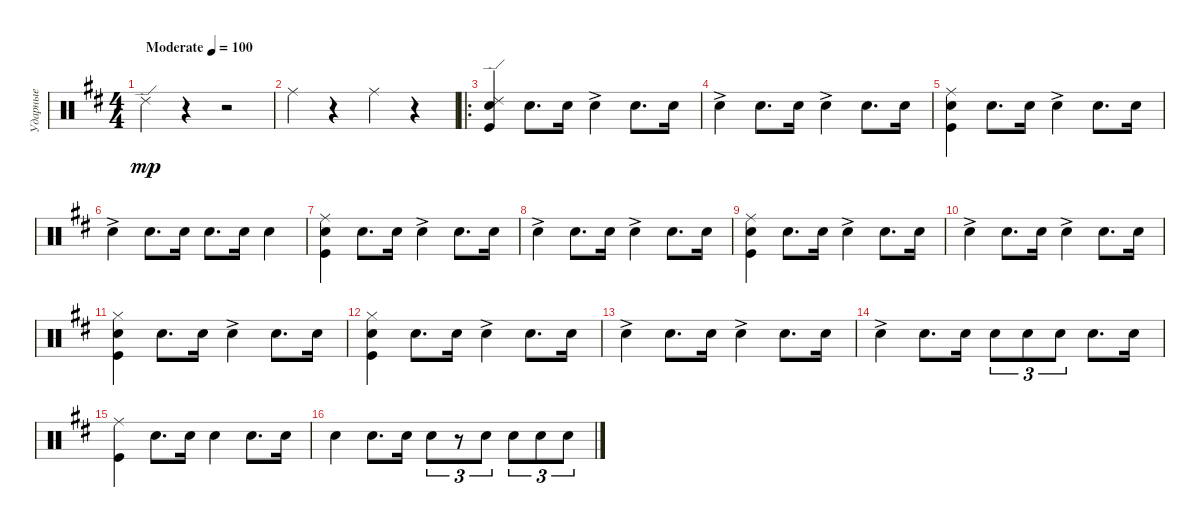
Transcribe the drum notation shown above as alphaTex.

\track ("Ударные" "Ударные") {instrument percussion}
\staff {score}
\articulation defaults
\ts (4 4)
\tempo (100 "Moderate")
\clef neutral
\ks d "Ride (edge) 2".4{dy mp}
r.4 r.2 |
"Ride (middle)".4 r.4 "Ride (middle)".4{beam Down} r.4 |
\ro
("Snare (hit) 2" "Kick (hit)" "Ride (edge) 2").4 "Snare (hit) 2".8{d} "Snare (hit) 2".16 "Snare (hit) 2"{ac}.4 "Snare (hit) 2".8{d} "Snare (hit) 2".16 |
"Snare (hit) 2"{ac}.4 "Snare (hit) 2".8{d} "Snare (hit) 2".16 "Snare (hit) 2"{ac}.4 "Snare (hit) 2".8{d} "Snare (hit) 2".16 |
("Ride (middle)" "Snare (hit) 2" "Kick (hit)").4 "Snare (hit) 2".8{d} "Snare (hit) 2".16 "Snare (hit) 2"{ac}.4 "Snare (hit) 2".8{d} "Snare (hit) 2".16 |
"Snare (hit) 2"{ac}.4 "Snare (hit) 2".8{d} "Snare (hit) 2".16 "Snare (hit) 2".8{d} "Snare (hit) 2".16 "Snare (hit) 2".4 |
("Snare (hit) 2" "Ride (middle)" "Kick (hit)").4 "Snare (hit) 2".8{d} "Snare (hit) 2".16 "Snare (hit) 2"{ac}.4 "Snare (hit) 2".8{d} "Snare (hit) 2".16 |
"Snare (hit) 2"{ac}.4 "Snare (hit) 2".8{d} "Snare (hit) 2".16 "Snare (hit) 2"{ac}.4 "Snare (hit) 2".8{d} "Snare (hit) 2".16 |
("Ride (middle)" "Snare (hit) 2" "Kick (hit)").4 "Snare (hit) 2".8{d} "Snare (hit) 2".16 "Snare (hit) 2"{ac}.4 "Snare (hit) 2".8{d} "Snare (hit) 2".16 |
"Snare (hit) 2"{ac}.4 "Snare (hit) 2".8{d} "Snare (hit) 2".16 "Snare (hit) 2"{ac}.4 "Snare (hit) 2".8{d} "Snare (hit) 2".16 |
("Hi-Hat (closed)" "Snare (hit) 2" "Kick (hit)").4 "Snare (hit) 2".8{d} "Snare (hit) 2".16 "Snare (hit) 2"{ac}.4 "Snare (hit) 2".8{d} "Snare (hit) 2".16 |
("Hi-Hat (closed)" "Snare (hit) 2" "Kick (hit)").4 "Snare (hit) 2".8{d} "Snare (hit) 2".16 "Snare (hit) 2"{ac}.4 "Snare (hit) 2".8{d} "Snare (hit) 2".16 |
"Snare (hit) 2"{ac}.4 "Snare (hit) 2".8{d} "Snare (hit) 2".16 "Snare (hit) 2"{ac}.4 "Snare (hit) 2".8{d} "Snare (hit) 2".16 |
"Snare (hit) 2"{ac}.4 "Snare (hit) 2".8{d} "Snare (hit) 2".16 "Snare (hit) 2".8{tu (3 2)} "Snare (hit) 2".8{tu (3 2)} "Snare (hit) 2".8{tu (3 2)} "Snare (hit) 2".8{d} "Snare (hit) 2".16 |
("Ride (middle)" "Kick (hit)").4 "Snare (hit) 2".8{d} "Snare (hit) 2".16 "Snare (hit) 2".4 "Snare (hit) 2".8{d} "Snare (hit) 2".16 |
"Snare (hit) 2".4 "Snare (hit) 2".8{d} "Snare (hit) 2".16 "Snare (hit) 2".8{tu (3 2)} r.8{tu (3 2)} "Snare (hit) 2".8{tu (3 2) beam split} "Snare (hit) 2".8{tu (3 2)} "Snare (hit) 2".8{tu (3 2)} "Snare (hit) 2".8{tu (3 2)}
